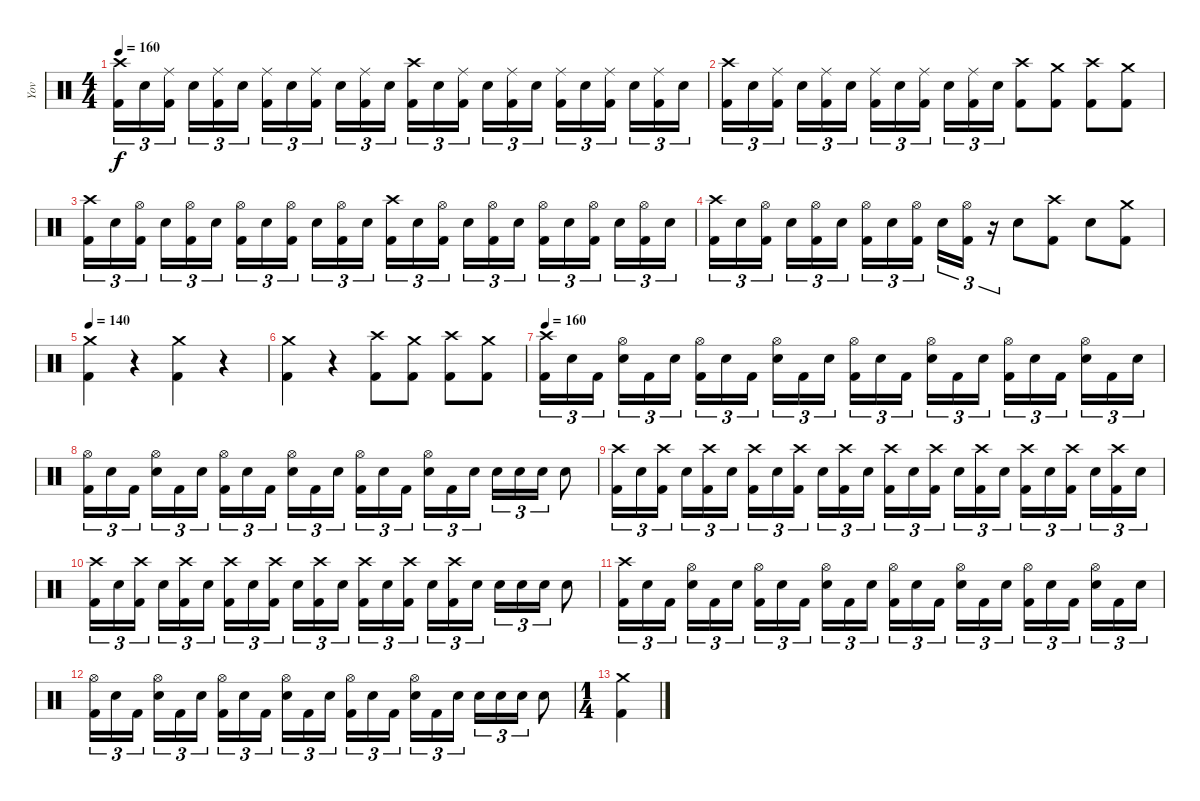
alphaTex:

\track ("Yov" "Yov") {instrument percussion}
\staff {score}
\articulation defaults
\ts (4 4)
\tempo 160
\clef neutral
\ks c
("Crash high (hit)" "Kick (hit) 2").16{tu (3 2) dy f} "Electric Snare (hit)".16{tu (3 2)} ("Ride (middle)" "Kick (hit) 2").16{tu (3 2) beam splitsecondary} "Electric Snare (hit)".16{tu (3 2)} ("Ride (middle)" "Kick (hit) 2").16{tu (3 2)} "Electric Snare (hit)".16{tu (3 2)} ("Ride (middle)" "Kick (hit) 2").16{tu (3 2)} "Electric Snare (hit)".16{tu (3 2)} ("Ride (middle)" "Kick (hit) 2").16{tu (3 2) beam splitsecondary} "Electric Snare (hit)".16{tu (3 2)} ("Ride (middle)" "Kick (hit) 2").16{tu (3 2)} "Electric Snare (hit)".16{tu (3 2)} ("Crash high (hit)" "Kick (hit) 2").16{tu (3 2)} "Electric Snare (hit)".16{tu (3 2)} ("Ride (middle)" "Kick (hit) 2").16{tu (3 2) beam splitsecondary} "Electric Snare (hit)".16{tu (3 2)} ("Ride (middle)" "Kick (hit) 2").16{tu (3 2)} "Electric Snare (hit)".16{tu (3 2)} ("Ride (middle)" "Kick (hit) 2").16{tu (3 2)} "Electric Snare (hit)".16{tu (3 2)} ("Ride (middle)" "Kick (hit) 2").16{tu (3 2) beam splitsecondary} "Electric Snare (hit)".16{tu (3 2)} ("Ride (middle)" "Kick (hit) 2").16{tu (3 2)} "Electric Snare (hit)".16{tu (3 2)} |
("Crash high (hit)" "Kick (hit) 2").16{tu (3 2)} "Electric Snare (hit)".16{tu (3 2)} ("Ride (middle)" "Kick (hit) 2").16{tu (3 2) beam splitsecondary} "Electric Snare (hit)".16{tu (3 2)} ("Ride (middle)" "Kick (hit) 2").16{tu (3 2)} "Electric Snare (hit)".16{tu (3 2)} ("Ride (middle)" "Kick (hit) 2").16{tu (3 2)} "Electric Snare (hit)".16{tu (3 2)} ("Ride (middle)" "Kick (hit) 2").16{tu (3 2) beam splitsecondary} "Electric Snare (hit)".16{tu (3 2)} ("Ride (middle)" "Kick (hit) 2").16{tu (3 2)} "Electric Snare (hit)".16{tu (3 2)} ("Crash high (hit)" "Kick (hit) 2").8 ("Crash medium (hit)" "Kick (hit) 2").8 ("Crash high (hit)" "Kick (hit) 2").8 ("Crash medium (hit)" "Kick (hit) 2").8 |
("Crash high (hit)" "Kick (hit) 2").16{tu (3 2)} "Electric Snare (hit)".16{tu (3 2)} ("Hi-Hat (open)" "Kick (hit) 2").16{tu (3 2) beam splitsecondary} "Electric Snare (hit)".16{tu (3 2)} ("Hi-Hat (open)" "Kick (hit) 2").16{tu (3 2)} "Electric Snare (hit)".16{tu (3 2)} ("Hi-Hat (open)" "Kick (hit) 2").16{tu (3 2)} "Electric Snare (hit)".16{tu (3 2)} ("Hi-Hat (open)" "Kick (hit) 2").16{tu (3 2) beam splitsecondary} "Electric Snare (hit)".16{tu (3 2)} ("Hi-Hat (open)" "Kick (hit) 2").16{tu (3 2)} "Electric Snare (hit)".16{tu (3 2)} ("Crash high (hit)" "Kick (hit) 2").16{tu (3 2)} "Electric Snare (hit)".16{tu (3 2)} ("Hi-Hat (open)" "Kick (hit) 2").16{tu (3 2) beam splitsecondary} "Electric Snare (hit)".16{tu (3 2)} ("Hi-Hat (open)" "Kick (hit) 2").16{tu (3 2)} "Electric Snare (hit)".16{tu (3 2)} ("Hi-Hat (open)" "Kick (hit) 2").16{tu (3 2)} "Electric Snare (hit)".16{tu (3 2)} ("Hi-Hat (open)" "Kick (hit) 2").16{tu (3 2) beam splitsecondary} "Electric Snare (hit)".16{tu (3 2)} ("Hi-Hat (open)" "Kick (hit) 2").16{tu (3 2)} "Electric Snare (hit)".16{tu (3 2)} |
("Crash high (hit)" "Kick (hit) 2").16{tu (3 2)} "Electric Snare (hit)".16{tu (3 2)} ("Hi-Hat (open)" "Kick (hit) 2").16{tu (3 2) beam splitsecondary} "Electric Snare (hit)".16{tu (3 2)} ("Hi-Hat (open)" "Kick (hit) 2").16{tu (3 2)} "Electric Snare (hit)".16{tu (3 2)} ("Hi-Hat (open)" "Kick (hit) 2").16{tu (3 2)} "Electric Snare (hit)".16{tu (3 2)} ("Hi-Hat (open)" "Kick (hit) 2").16{tu (3 2) beam splitsecondary} "Electric Snare (hit)".16{tu (3 2)} ("Hi-Hat (open)" "Kick (hit) 2").16{tu (3 2)} r.16{tu (3 2)} "Electric Snare (hit)".8 ("Crash high (hit)" "Kick (hit) 2").8 "Electric Snare (hit)".8 ("Crash medium (hit)" "Kick (hit) 2").8 |
\tempo 140
("Crash medium (hit)" "Kick (hit) 2").4 r.4 ("Crash medium (hit)" "Kick (hit) 2").4 r.4 |
("Crash medium (hit)" "Kick (hit) 2").4 r.4 ("Crash high (hit)" "Kick (hit) 2").8 ("Crash medium (hit)" "Kick (hit) 2").8 ("Crash high (hit)" "Kick (hit) 2").8 ("Crash medium (hit)" "Kick (hit) 2").8 |
\tempo 160
("Crash high (hit)" "Kick (hit) 2").16{tu (3 2)} "Electric Snare (hit)".16{tu (3 2)} "Kick (hit) 2".16{tu (3 2) beam splitsecondary} ("Hi-Hat (open)" "Electric Snare (hit)").16{tu (3 2)} "Kick (hit) 2".16{tu (3 2)} "Electric Snare (hit)".16{tu (3 2)} ("Hi-Hat (open)" "Kick (hit) 2").16{tu (3 2)} "Electric Snare (hit)".16{tu (3 2)} "Kick (hit) 2".16{tu (3 2) beam splitsecondary} ("Hi-Hat (open)" "Electric Snare (hit)").16{tu (3 2)} "Kick (hit) 2".16{tu (3 2)} "Electric Snare (hit)".16{tu (3 2)} ("Hi-Hat (open)" "Kick (hit) 2").16{tu (3 2)} "Electric Snare (hit)".16{tu (3 2)} "Kick (hit) 2".16{tu (3 2) beam splitsecondary} ("Hi-Hat (open)" "Electric Snare (hit)").16{tu (3 2)} "Kick (hit) 2".16{tu (3 2)} "Electric Snare (hit)".16{tu (3 2)} ("Hi-Hat (open)" "Kick (hit) 2").16{tu (3 2)} "Electric Snare (hit)".16{tu (3 2)} "Kick (hit) 2".16{tu (3 2) beam splitsecondary} ("Hi-Hat (open)" "Electric Snare (hit)").16{tu (3 2)} "Kick (hit) 2".16{tu (3 2)} "Electric Snare (hit)".16{tu (3 2)} |
("Hi-Hat (open)" "Kick (hit) 2").16{tu (3 2)} "Electric Snare (hit)".16{tu (3 2)} "Kick (hit) 2".16{tu (3 2) beam splitsecondary} ("Hi-Hat (open)" "Electric Snare (hit)").16{tu (3 2)} "Kick (hit) 2".16{tu (3 2)} "Electric Snare (hit)".16{tu (3 2)} ("Hi-Hat (open)" "Kick (hit) 2").16{tu (3 2)} "Electric Snare (hit)".16{tu (3 2)} "Kick (hit) 2".16{tu (3 2) beam splitsecondary} ("Hi-Hat (open)" "Electric Snare (hit)").16{tu (3 2)} "Kick (hit) 2".16{tu (3 2)} "Electric Snare (hit)".16{tu (3 2)} ("Hi-Hat (open)" "Kick (hit) 2").16{tu (3 2)} "Electric Snare (hit)".16{tu (3 2)} "Kick (hit) 2".16{tu (3 2) beam splitsecondary} ("Hi-Hat (open)" "Electric Snare (hit)").16{tu (3 2)} "Kick (hit) 2".16{tu (3 2)} "Electric Snare (hit)".16{tu (3 2)} "Electric Snare (hit)".16{tu (3 2)} "Electric Snare (hit)".16{tu (3 2)} "Electric Snare (hit)".16{tu (3 2)} "Electric Snare (hit)".8 |
("Crash high (hit)" "Kick (hit) 2").16{tu (3 2)} "Electric Snare (hit)".16{tu (3 2)} ("Crash high (hit)" "Kick (hit) 2").16{tu (3 2) beam splitsecondary} "Electric Snare (hit)".16{tu (3 2)} ("Crash high (hit)" "Kick (hit) 2").16{tu (3 2)} "Electric Snare (hit)".16{tu (3 2)} ("Crash high (hit)" "Kick (hit) 2").16{tu (3 2)} "Electric Snare (hit)".16{tu (3 2)} ("Crash high (hit)" "Kick (hit) 2").16{tu (3 2) beam splitsecondary} "Electric Snare (hit)".16{tu (3 2)} ("Crash high (hit)" "Kick (hit) 2").16{tu (3 2)} "Electric Snare (hit)".16{tu (3 2)} ("Crash high (hit)" "Kick (hit) 2").16{tu (3 2)} "Electric Snare (hit)".16{tu (3 2)} ("Crash high (hit)" "Kick (hit) 2").16{tu (3 2) beam splitsecondary} "Electric Snare (hit)".16{tu (3 2)} ("Crash high (hit)" "Kick (hit) 2").16{tu (3 2)} "Electric Snare (hit)".16{tu (3 2)} ("Crash high (hit)" "Kick (hit) 2").16{tu (3 2)} "Electric Snare (hit)".16{tu (3 2)} ("Crash high (hit)" "Kick (hit) 2").16{tu (3 2) beam splitsecondary} "Electric Snare (hit)".16{tu (3 2)} ("Crash high (hit)" "Kick (hit) 2").16{tu (3 2)} "Electric Snare (hit)".16{tu (3 2)} |
("Crash high (hit)" "Kick (hit) 2").16{tu (3 2)} "Electric Snare (hit)".16{tu (3 2)} ("Crash high (hit)" "Kick (hit) 2").16{tu (3 2) beam splitsecondary} "Electric Snare (hit)".16{tu (3 2)} ("Crash high (hit)" "Kick (hit) 2").16{tu (3 2)} "Electric Snare (hit)".16{tu (3 2)} ("Crash high (hit)" "Kick (hit) 2").16{tu (3 2)} "Electric Snare (hit)".16{tu (3 2)} ("Crash high (hit)" "Kick (hit) 2").16{tu (3 2) beam splitsecondary} "Electric Snare (hit)".16{tu (3 2)} ("Crash high (hit)" "Kick (hit) 2").16{tu (3 2)} "Electric Snare (hit)".16{tu (3 2)} ("Crash high (hit)" "Kick (hit) 2").16{tu (3 2)} "Electric Snare (hit)".16{tu (3 2)} ("Crash high (hit)" "Kick (hit) 2").16{tu (3 2) beam splitsecondary} "Electric Snare (hit)".16{tu (3 2)} ("Crash high (hit)" "Kick (hit) 2").16{tu (3 2)} "Electric Snare (hit)".16{tu (3 2)} "Electric Snare (hit)".16{tu (3 2)} "Electric Snare (hit)".16{tu (3 2)} "Electric Snare (hit)".16{tu (3 2)} "Electric Snare (hit)".8 |
("Crash high (hit)" "Kick (hit) 2").16{tu (3 2)} "Electric Snare (hit)".16{tu (3 2)} "Kick (hit) 2".16{tu (3 2) beam splitsecondary} ("Hi-Hat (open)" "Electric Snare (hit)").16{tu (3 2)} "Kick (hit) 2".16{tu (3 2)} "Electric Snare (hit)".16{tu (3 2)} ("Hi-Hat (open)" "Kick (hit) 2").16{tu (3 2)} "Electric Snare (hit)".16{tu (3 2)} "Kick (hit) 2".16{tu (3 2) beam splitsecondary} ("Hi-Hat (open)" "Electric Snare (hit)").16{tu (3 2)} "Kick (hit) 2".16{tu (3 2)} "Electric Snare (hit)".16{tu (3 2)} ("Hi-Hat (open)" "Kick (hit) 2").16{tu (3 2)} "Electric Snare (hit)".16{tu (3 2)} "Kick (hit) 2".16{tu (3 2) beam splitsecondary} ("Hi-Hat (open)" "Electric Snare (hit)").16{tu (3 2)} "Kick (hit) 2".16{tu (3 2)} "Electric Snare (hit)".16{tu (3 2)} ("Hi-Hat (open)" "Kick (hit) 2").16{tu (3 2)} "Electric Snare (hit)".16{tu (3 2)} "Kick (hit) 2".16{tu (3 2) beam splitsecondary} ("Hi-Hat (open)" "Electric Snare (hit)").16{tu (3 2)} "Kick (hit) 2".16{tu (3 2)} "Electric Snare (hit)".16{tu (3 2)} |
("Hi-Hat (open)" "Kick (hit) 2").16{tu (3 2)} "Electric Snare (hit)".16{tu (3 2)} "Kick (hit) 2".16{tu (3 2) beam splitsecondary} ("Hi-Hat (open)" "Electric Snare (hit)").16{tu (3 2)} "Kick (hit) 2".16{tu (3 2)} "Electric Snare (hit)".16{tu (3 2)} ("Hi-Hat (open)" "Kick (hit) 2").16{tu (3 2)} "Electric Snare (hit)".16{tu (3 2)} "Kick (hit) 2".16{tu (3 2) beam splitsecondary} ("Hi-Hat (open)" "Electric Snare (hit)").16{tu (3 2)} "Kick (hit) 2".16{tu (3 2)} "Electric Snare (hit)".16{tu (3 2)} ("Hi-Hat (open)" "Kick (hit) 2").16{tu (3 2)} "Electric Snare (hit)".16{tu (3 2)} "Kick (hit) 2".16{tu (3 2) beam splitsecondary} ("Hi-Hat (open)" "Electric Snare (hit)").16{tu (3 2)} "Kick (hit) 2".16{tu (3 2)} "Electric Snare (hit)".16{tu (3 2)} "Electric Snare (hit)".16{tu (3 2)} "Electric Snare (hit)".16{tu (3 2)} "Electric Snare (hit)".16{tu (3 2)} "Electric Snare (hit)".8 |
\ts (1 4)
("Crash medium (hit)" "Kick (hit) 2").4
